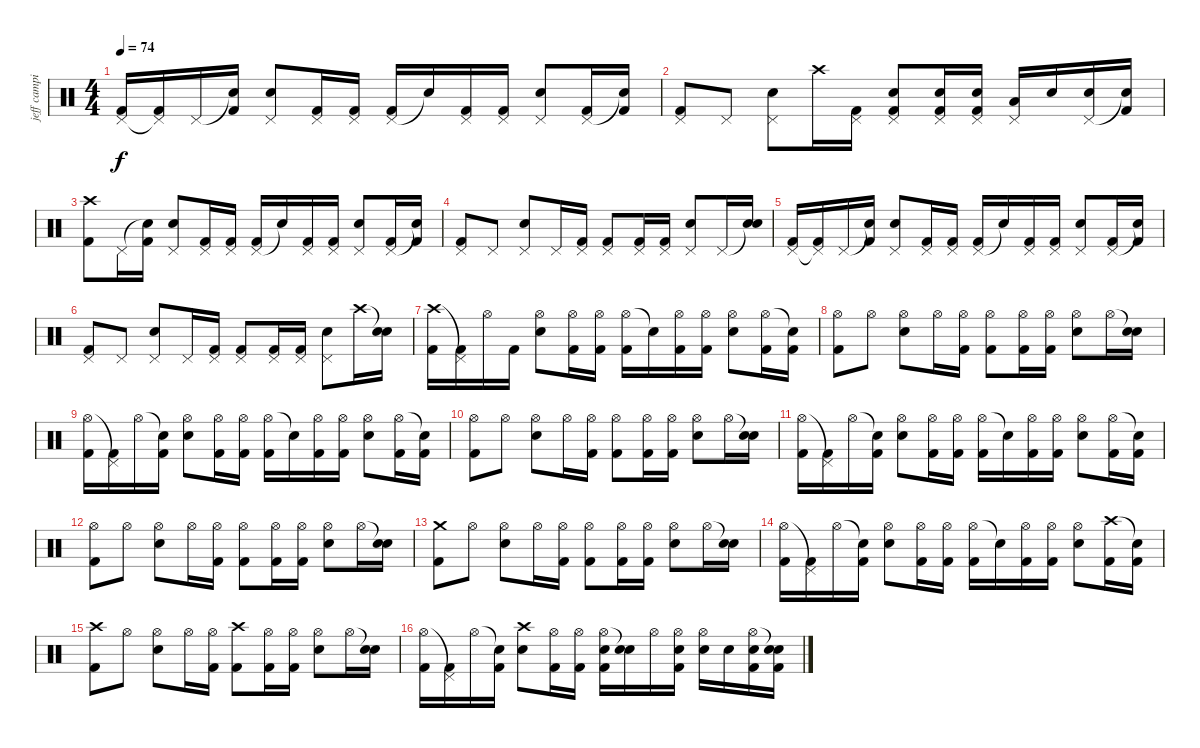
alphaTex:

\track ("jeff campitelli" "jeff campi") {instrument percussion}
\staff {score}
\articulation defaults
\ts (4 4)
\tempo 74
\clef neutral
\ks c
("Pedal Hi-Hat (hit)" "Kick (hit) 2").16{dy f} ("Pedal Hi-Hat (hit)"{t} "Kick (hit) 2").16 "Pedal Hi-Hat (hit)".16 ("Snare (hit)"{t} "Kick (hit) 2").16 ("Pedal Hi-Hat (hit)" "Electric Snare (hit)").8 ("Pedal Hi-Hat (hit)" "Kick (hit) 2").16 ("Pedal Hi-Hat (hit)" "Kick (hit) 2").16 ("Pedal Hi-Hat (hit)" "Kick (hit) 2").16 "Snare (hit)"{t}.16 ("Pedal Hi-Hat (hit)" "Kick (hit) 2").16 ("Pedal Hi-Hat (hit)" "Kick (hit) 2").16 ("Pedal Hi-Hat (hit)" "Electric Snare (hit)").8 ("Pedal Hi-Hat (hit)" "Kick (hit) 2").16 ("Snare (hit)"{t} "Kick (hit) 2").16 |
("Pedal Hi-Hat (hit)" "Kick (hit) 2").8 "Pedal Hi-Hat (hit)".8 ("Pedal Hi-Hat (hit)" "Electric Snare (hit)").8 "Crash high (hit)".16 ("Pedal Hi-Hat (hit)" "Kick (hit) 2").16 ("Pedal Hi-Hat (hit)" "Electric Snare (hit)" "Kick (hit) 2").8 ("Pedal Hi-Hat (hit)" "Electric Snare (hit)" "Kick (hit) 2").16 ("Pedal Hi-Hat (hit)" "Electric Snare (hit)" "Kick (hit) 2").16 ("Pedal Hi-Hat (hit)" "Low Floor Tom (hit)").16 "Electric Snare (hit)".16 ("Pedal Hi-Hat (hit)" "Electric Snare (hit)").16 ("Snare (hit)"{t} "Kick (hit) 2").16 |
("Crash high (hit)" "Kick (hit) 2").8 "Pedal Hi-Hat (hit)".16 ("Snare (hit)"{t} "Kick (hit) 2").16 ("Pedal Hi-Hat (hit)" "Electric Snare (hit)").8 ("Pedal Hi-Hat (hit)" "Kick (hit) 2").16 ("Pedal Hi-Hat (hit)" "Kick (hit) 2").16 ("Pedal Hi-Hat (hit)" "Kick (hit) 2").16 "Snare (hit)"{t}.16 ("Pedal Hi-Hat (hit)" "Kick (hit) 2").16 ("Pedal Hi-Hat (hit)" "Kick (hit) 2").16 ("Pedal Hi-Hat (hit)" "Electric Snare (hit)").8 ("Pedal Hi-Hat (hit)" "Kick (hit) 2").16 ("Snare (hit)"{t} "Kick (hit) 2").16 |
("Pedal Hi-Hat (hit)" "Kick (hit) 2").8 "Pedal Hi-Hat (hit)".8 ("Pedal Hi-Hat (hit)" "Electric Snare (hit)").8 "Pedal Hi-Hat (hit)".16 ("Pedal Hi-Hat (hit)" "Kick (hit) 2").16 ("Pedal Hi-Hat (hit)" "Kick (hit) 2").8 ("Pedal Hi-Hat (hit)" "Kick (hit) 2").16 ("Pedal Hi-Hat (hit)" "Kick (hit) 2").16 ("Pedal Hi-Hat (hit)" "Electric Snare (hit)").8 "Pedal Hi-Hat (hit)".16 ("Snare (hit)"{t} "Electric Snare (hit)").16 |
("Pedal Hi-Hat (hit)" "Kick (hit) 2").16 ("Pedal Hi-Hat (hit)"{t} "Kick (hit) 2").16 "Pedal Hi-Hat (hit)".16 ("Snare (hit)"{t} "Kick (hit) 2").16 ("Pedal Hi-Hat (hit)" "Electric Snare (hit)").8 ("Pedal Hi-Hat (hit)" "Kick (hit) 2").16 ("Pedal Hi-Hat (hit)" "Kick (hit) 2").16 ("Pedal Hi-Hat (hit)" "Kick (hit) 2").16 "Snare (hit)"{t}.16 ("Pedal Hi-Hat (hit)" "Kick (hit) 2").16 ("Pedal Hi-Hat (hit)" "Kick (hit) 2").16 ("Pedal Hi-Hat (hit)" "Electric Snare (hit)").8 ("Pedal Hi-Hat (hit)" "Kick (hit) 2").16 ("Snare (hit)"{t} "Kick (hit) 2").16 |
("Pedal Hi-Hat (hit)" "Kick (hit) 2").8 "Pedal Hi-Hat (hit)".8 ("Pedal Hi-Hat (hit)" "Electric Snare (hit)").8 "Pedal Hi-Hat (hit)".16 ("Pedal Hi-Hat (hit)" "Kick (hit) 2").16 ("Pedal Hi-Hat (hit)" "Kick (hit) 2").8 ("Pedal Hi-Hat (hit)" "Kick (hit) 2").16 ("Pedal Hi-Hat (hit)" "Kick (hit) 2").16 ("Pedal Hi-Hat (hit)" "Electric Snare (hit)").8 "Crash high (hit)".16 ("Snare (hit)"{t} "Electric Snare (hit)").16 |
("Crash high (hit)" "Kick (hit) 2").16 ("Pedal Hi-Hat (hit)"{t} "Kick (hit) 2").16 "Hi-Hat (open)".16 "Kick (hit) 2".16 ("Hi-Hat (open)" "Electric Snare (hit)").8 ("Hi-Hat (open)" "Kick (hit) 2").16 ("Hi-Hat (open)" "Kick (hit) 2").16 ("Hi-Hat (open)" "Kick (hit) 2").16 "Snare (hit)"{t}.16 ("Hi-Hat (open)" "Kick (hit) 2").16 ("Hi-Hat (open)" "Kick (hit) 2").16 ("Hi-Hat (open)" "Electric Snare (hit)").8 ("Hi-Hat (open)" "Kick (hit) 2").16 ("Snare (hit)"{t} "Kick (hit) 2").16 |
("Hi-Hat (open)" "Kick (hit) 2").8 "Hi-Hat (open)".8 ("Hi-Hat (open)" "Electric Snare (hit)").8 "Hi-Hat (open)".16 ("Hi-Hat (open)" "Kick (hit) 2").16 ("Hi-Hat (open)" "Kick (hit) 2").8 ("Hi-Hat (open)" "Kick (hit) 2").16 ("Hi-Hat (open)" "Kick (hit) 2").16 ("Hi-Hat (open)" "Electric Snare (hit)").8 "Hi-Hat (open)".16 ("Snare (hit)"{t} "Electric Snare (hit)").16 |
("Hi-Hat (open)" "Kick (hit) 2").16 ("Pedal Hi-Hat (hit)"{t} "Kick (hit) 2").16 "Hi-Hat (open)".16 ("Snare (hit)"{t} "Kick (hit) 2").16 ("Hi-Hat (open)" "Electric Snare (hit)").8 ("Hi-Hat (open)" "Kick (hit) 2").16 ("Hi-Hat (open)" "Kick (hit) 2").16 ("Hi-Hat (open)" "Kick (hit) 2").16 "Snare (hit)"{t}.16 ("Hi-Hat (open)" "Kick (hit) 2").16 ("Hi-Hat (open)" "Kick (hit) 2").16 ("Hi-Hat (open)" "Electric Snare (hit)").8 ("Hi-Hat (open)" "Kick (hit) 2").16 ("Snare (hit)"{t} "Kick (hit) 2").16 |
("Hi-Hat (open)" "Kick (hit) 2").8 "Hi-Hat (open)".8 ("Hi-Hat (open)" "Electric Snare (hit)").8 "Hi-Hat (open)".16 ("Hi-Hat (open)" "Kick (hit) 2").16 ("Hi-Hat (open)" "Kick (hit) 2").8 ("Hi-Hat (open)" "Kick (hit) 2").16 ("Hi-Hat (open)" "Kick (hit) 2").16 ("Hi-Hat (open)" "Electric Snare (hit)").8 "Hi-Hat (open)".16 ("Snare (hit)"{t} "Electric Snare (hit)").16 |
("Hi-Hat (open)" "Kick (hit) 2").16 ("Pedal Hi-Hat (hit)"{t} "Kick (hit) 2").16 "Hi-Hat (open)".16 ("Snare (hit)"{t} "Kick (hit) 2").16 ("Hi-Hat (open)" "Electric Snare (hit)").8 ("Hi-Hat (open)" "Kick (hit) 2").16 ("Hi-Hat (open)" "Kick (hit) 2").16 ("Hi-Hat (open)" "Kick (hit) 2").16 "Snare (hit)"{t}.16 ("Hi-Hat (open)" "Kick (hit) 2").16 ("Hi-Hat (open)" "Kick (hit) 2").16 ("Hi-Hat (open)" "Electric Snare (hit)").8 ("Hi-Hat (open)" "Kick (hit) 2").16 ("Snare (hit)"{t} "Kick (hit) 2").16 |
("Hi-Hat (open)" "Kick (hit) 2").8 "Hi-Hat (open)".8 ("Hi-Hat (open)" "Electric Snare (hit)").8 "Hi-Hat (open)".16 ("Hi-Hat (open)" "Kick (hit) 2").16 ("Hi-Hat (open)" "Kick (hit) 2").8 ("Hi-Hat (open)" "Kick (hit) 2").16 ("Hi-Hat (open)" "Kick (hit) 2").16 ("Hi-Hat (open)" "Electric Snare (hit)").8 "Hi-Hat (open)".16 ("Snare (hit)"{t} "Electric Snare (hit)").16 |
("Crash medium (hit)" "Kick (hit) 2").8 "Hi-Hat (open)".8 ("Hi-Hat (open)" "Electric Snare (hit)").8 "Hi-Hat (open)".16 ("Hi-Hat (open)" "Kick (hit) 2").16 ("Hi-Hat (open)" "Kick (hit) 2").8 ("Hi-Hat (open)" "Kick (hit) 2").16 ("Hi-Hat (open)" "Kick (hit) 2").16 ("Hi-Hat (open)" "Electric Snare (hit)").8 "Hi-Hat (open)".16 ("Snare (hit)"{t} "Electric Snare (hit)").16 |
("Hi-Hat (open)" "Kick (hit) 2").16 ("Pedal Hi-Hat (hit)"{t} "Kick (hit) 2").16 "Hi-Hat (open)".16 ("Snare (hit)"{t} "Kick (hit) 2").16 ("Hi-Hat (open)" "Electric Snare (hit)").8 ("Hi-Hat (open)" "Kick (hit) 2").16 ("Hi-Hat (open)" "Kick (hit) 2").16 ("Hi-Hat (open)" "Kick (hit) 2").16 "Snare (hit)"{t}.16 ("Hi-Hat (open)" "Kick (hit) 2").16 ("Hi-Hat (open)" "Kick (hit) 2").16 ("Hi-Hat (open)" "Electric Snare (hit)").8 ("Crash high (hit)" "Kick (hit) 2").16 ("Snare (hit)"{t} "Kick (hit) 2").16 |
("Crash high (hit)" "Kick (hit) 2").8 "Hi-Hat (open)".8 ("Hi-Hat (open)" "Electric Snare (hit)").8 "Hi-Hat (open)".16 ("Hi-Hat (open)" "Kick (hit) 2").16 ("Crash high (hit)" "Kick (hit) 2").8 ("Hi-Hat (open)" "Kick (hit) 2").16 ("Hi-Hat (open)" "Kick (hit) 2").16 ("Hi-Hat (open)" "Electric Snare (hit)").8 "Hi-Hat (open)".16 ("Snare (hit)"{t} "Electric Snare (hit)").16 |
("Hi-Hat (open)" "Kick (hit) 2").16 ("Pedal Hi-Hat (hit)"{t} "Kick (hit) 2").16 "Hi-Hat (open)".16 ("Snare (hit)"{t} "Kick (hit) 2").16 ("Crash high (hit)" "Electric Snare (hit)").8 ("Hi-Hat (open)" "Kick (hit) 2").16 ("Hi-Hat (open)" "Kick (hit) 2").16 ("Hi-Hat (open)" "Electric Snare (hit)" "Kick (hit) 2").16 ("Snare (hit)"{t} "Snare (hit) 2").16 "Hi-Hat (open)".16 ("Hi-Hat (open)" "Snare (hit) 2" "Kick (hit) 2").16 ("Hi-Hat (open)" "Electric Snare (hit)").16 "Snare (hit) 2".16 ("Hi-Hat (open)" "Snare (hit) 2" "Kick (hit) 2").16 ("Snare (hit)"{t} "Electric Snare (hit)" "Kick (hit) 2").16
